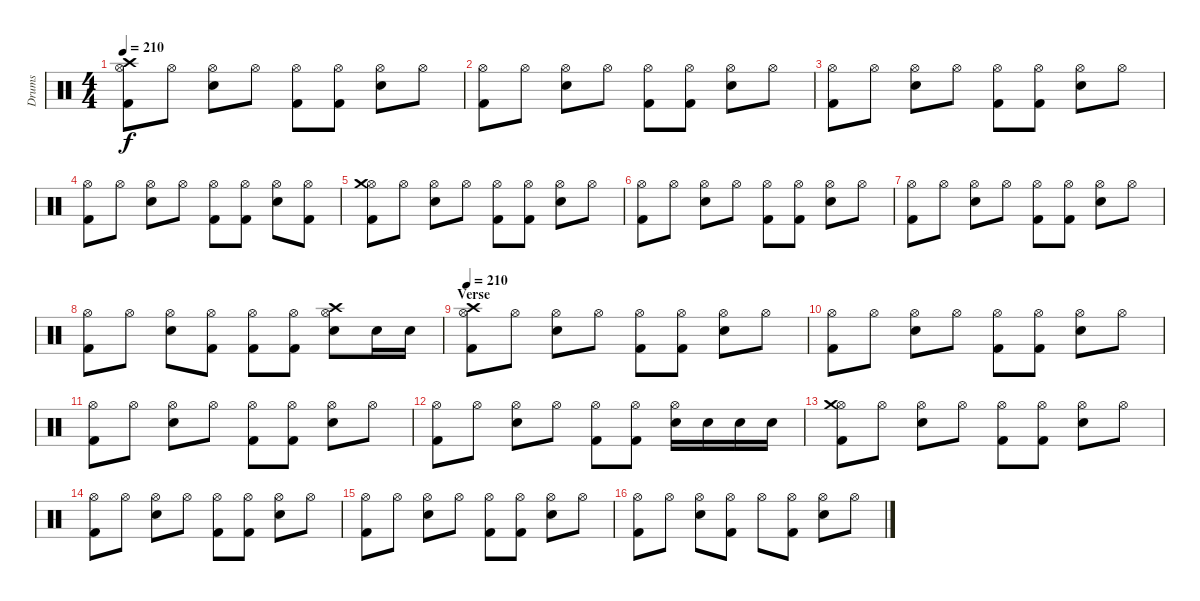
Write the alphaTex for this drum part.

\track ("Drums" "Drums") {instrument percussion}
\staff {score}
\articulation defaults
\ts (4 4)
\tempo 210
\clef neutral
\ks c
("Hi-Hat (open)" "Crash high (hit)" "Kick (hit) 2").8{dy f} "Hi-Hat (open)".8 ("Hi-Hat (open)" "Electric Snare (hit)").8 "Hi-Hat (open)".8 ("Hi-Hat (open)" "Kick (hit) 2").8 ("Hi-Hat (open)" "Kick (hit) 2").8 ("Hi-Hat (open)" "Electric Snare (hit)").8 "Hi-Hat (open)".8 |
("Hi-Hat (open)" "Kick (hit) 2").8 "Hi-Hat (open)".8 ("Hi-Hat (open)" "Electric Snare (hit)").8 "Hi-Hat (open)".8 ("Hi-Hat (open)" "Kick (hit) 2").8 ("Hi-Hat (open)" "Kick (hit) 2").8 ("Hi-Hat (open)" "Electric Snare (hit)").8 "Hi-Hat (open)".8 |
("Hi-Hat (open)" "Kick (hit) 2").8 "Hi-Hat (open)".8 ("Hi-Hat (open)" "Electric Snare (hit)").8 "Hi-Hat (open)".8 ("Hi-Hat (open)" "Kick (hit) 2").8 ("Hi-Hat (open)" "Kick (hit) 2").8 ("Hi-Hat (open)" "Electric Snare (hit)").8 "Hi-Hat (open)".8 |
("Hi-Hat (open)" "Kick (hit) 2").8 "Hi-Hat (open)".8 ("Hi-Hat (open)" "Electric Snare (hit)").8 "Hi-Hat (open)".8 ("Hi-Hat (open)" "Kick (hit) 2").8 ("Hi-Hat (open)" "Kick (hit) 2").8 ("Hi-Hat (open)" "Electric Snare (hit)").8 ("Hi-Hat (open)" "Kick (hit) 2").8 |
("Hi-Hat (open)" "Crash medium (hit)" "Kick (hit) 2").8 "Hi-Hat (open)".8 ("Hi-Hat (open)" "Electric Snare (hit)").8 "Hi-Hat (open)".8 ("Hi-Hat (open)" "Kick (hit) 2").8 ("Hi-Hat (open)" "Kick (hit) 2").8 ("Hi-Hat (open)" "Electric Snare (hit)").8 "Hi-Hat (open)".8 |
("Hi-Hat (open)" "Kick (hit) 2").8 "Hi-Hat (open)".8 ("Hi-Hat (open)" "Electric Snare (hit)").8 "Hi-Hat (open)".8 ("Hi-Hat (open)" "Kick (hit) 2").8 ("Hi-Hat (open)" "Kick (hit) 2").8 ("Hi-Hat (open)" "Electric Snare (hit)").8 "Hi-Hat (open)".8 |
("Hi-Hat (open)" "Kick (hit) 2").8 "Hi-Hat (open)".8 ("Hi-Hat (open)" "Electric Snare (hit)").8 "Hi-Hat (open)".8 ("Hi-Hat (open)" "Kick (hit) 2").8 ("Hi-Hat (open)" "Kick (hit) 2").8 ("Hi-Hat (open)" "Electric Snare (hit)").8 "Hi-Hat (open)".8 |
("Hi-Hat (open)" "Kick (hit) 2").8 "Hi-Hat (open)".8 ("Hi-Hat (open)" "Electric Snare (hit)").8 ("Hi-Hat (open)" "Kick (hit) 2").8 ("Hi-Hat (open)" "Kick (hit) 2").8 ("Hi-Hat (open)" "Kick (hit) 2").8 ("Hi-Hat (open)" "Crash high (hit)" "Electric Snare (hit)").8 "Electric Snare (hit)".16 "Electric Snare (hit)".16 |
\section ("" "Verse")
\tempo 210
("Hi-Hat (open)" "Crash high (hit)" "Kick (hit) 2").8 "Hi-Hat (open)".8 ("Hi-Hat (open)" "Electric Snare (hit)").8 "Hi-Hat (open)".8 ("Hi-Hat (open)" "Kick (hit) 2").8 ("Hi-Hat (open)" "Kick (hit) 2").8 ("Hi-Hat (open)" "Electric Snare (hit)").8 "Hi-Hat (open)".8 |
("Hi-Hat (open)" "Kick (hit) 2").8 "Hi-Hat (open)".8 ("Hi-Hat (open)" "Electric Snare (hit)").8 "Hi-Hat (open)".8 ("Hi-Hat (open)" "Kick (hit) 2").8 ("Hi-Hat (open)" "Kick (hit) 2").8 ("Hi-Hat (open)" "Electric Snare (hit)").8 "Hi-Hat (open)".8 |
("Hi-Hat (open)" "Kick (hit) 2").8 "Hi-Hat (open)".8 ("Hi-Hat (open)" "Electric Snare (hit)").8 "Hi-Hat (open)".8 ("Hi-Hat (open)" "Kick (hit) 2").8 ("Hi-Hat (open)" "Kick (hit) 2").8 ("Hi-Hat (open)" "Electric Snare (hit)").8 "Hi-Hat (open)".8 |
("Hi-Hat (open)" "Kick (hit) 2").8 "Hi-Hat (open)".8 ("Hi-Hat (open)" "Electric Snare (hit)").8 "Hi-Hat (open)".8 ("Hi-Hat (open)" "Kick (hit) 2").8 ("Hi-Hat (open)" "Kick (hit) 2").8 ("Hi-Hat (open)" "Electric Snare (hit)").16 "Electric Snare (hit)".16 "Electric Snare (hit)".16 "Electric Snare (hit)".16 |
("Hi-Hat (open)" "Crash medium (hit)" "Kick (hit) 2").8 "Hi-Hat (open)".8 ("Hi-Hat (open)" "Electric Snare (hit)").8 "Hi-Hat (open)".8 ("Hi-Hat (open)" "Kick (hit) 2").8 ("Hi-Hat (open)" "Kick (hit) 2").8 ("Hi-Hat (open)" "Electric Snare (hit)").8 "Hi-Hat (open)".8 |
("Hi-Hat (open)" "Kick (hit) 2").8 "Hi-Hat (open)".8 ("Hi-Hat (open)" "Electric Snare (hit)").8 "Hi-Hat (open)".8 ("Hi-Hat (open)" "Kick (hit) 2").8 ("Hi-Hat (open)" "Kick (hit) 2").8 ("Hi-Hat (open)" "Electric Snare (hit)").8 "Hi-Hat (open)".8 |
("Hi-Hat (open)" "Kick (hit) 2").8 "Hi-Hat (open)".8 ("Hi-Hat (open)" "Electric Snare (hit)").8 "Hi-Hat (open)".8 ("Hi-Hat (open)" "Kick (hit) 2").8 ("Hi-Hat (open)" "Kick (hit) 2").8 ("Hi-Hat (open)" "Electric Snare (hit)").8 "Hi-Hat (open)".8 |
("Hi-Hat (open)" "Kick (hit) 2").8 "Hi-Hat (open)".8 ("Hi-Hat (open)" "Electric Snare (hit)").8 ("Hi-Hat (open)" "Kick (hit) 2").8 "Hi-Hat (open)".8 ("Hi-Hat (open)" "Kick (hit) 2").8 ("Hi-Hat (open)" "Electric Snare (hit)").8 "Hi-Hat (open)".8
